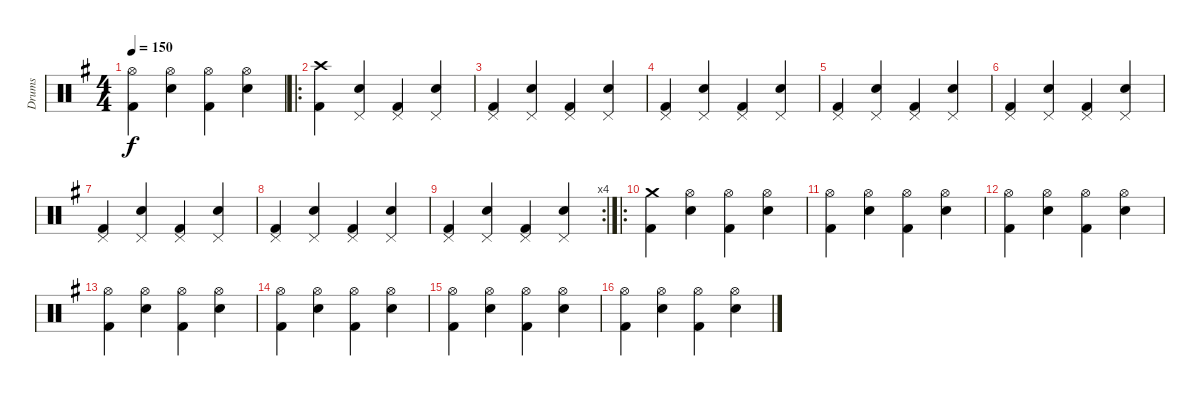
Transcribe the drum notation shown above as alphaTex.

\track ("Drums" "Drums") {instrument percussion}
\staff {score}
\articulation defaults
\ts (4 4)
\tempo 150
\clef neutral
\ks g
("Hi-Hat (open)" "Kick (hit) 2").4{dy f} ("Hi-Hat (open)" "Electric Snare (hit)").4 ("Hi-Hat (open)" "Kick (hit) 2").4 ("Hi-Hat (open)" "Electric Snare (hit)").4 |
\ro
("Crash high (hit)" "Kick (hit) 2").4 ("Pedal Hi-Hat (hit)" "Electric Snare (hit)").4 ("Pedal Hi-Hat (hit)" "Kick (hit) 2").4 ("Pedal Hi-Hat (hit)" "Electric Snare (hit)").4 |
("Pedal Hi-Hat (hit)" "Kick (hit) 2").4 ("Pedal Hi-Hat (hit)" "Electric Snare (hit)").4 ("Pedal Hi-Hat (hit)" "Kick (hit) 2").4 ("Pedal Hi-Hat (hit)" "Electric Snare (hit)").4 |
("Pedal Hi-Hat (hit)" "Kick (hit) 2").4 ("Pedal Hi-Hat (hit)" "Electric Snare (hit)").4 ("Pedal Hi-Hat (hit)" "Kick (hit) 2").4 ("Pedal Hi-Hat (hit)" "Electric Snare (hit)").4 |
("Pedal Hi-Hat (hit)" "Kick (hit) 2").4 ("Pedal Hi-Hat (hit)" "Electric Snare (hit)").4 ("Pedal Hi-Hat (hit)" "Kick (hit) 2").4 ("Pedal Hi-Hat (hit)" "Electric Snare (hit)").4 |
("Pedal Hi-Hat (hit)" "Kick (hit) 2").4 ("Pedal Hi-Hat (hit)" "Electric Snare (hit)").4 ("Pedal Hi-Hat (hit)" "Kick (hit) 2").4 ("Pedal Hi-Hat (hit)" "Electric Snare (hit)").4 |
("Pedal Hi-Hat (hit)" "Kick (hit) 2").4 ("Pedal Hi-Hat (hit)" "Electric Snare (hit)").4 ("Pedal Hi-Hat (hit)" "Kick (hit) 2").4 ("Pedal Hi-Hat (hit)" "Electric Snare (hit)").4 |
("Pedal Hi-Hat (hit)" "Kick (hit) 2").4 ("Pedal Hi-Hat (hit)" "Electric Snare (hit)").4 ("Pedal Hi-Hat (hit)" "Kick (hit) 2").4 ("Pedal Hi-Hat (hit)" "Electric Snare (hit)").4 |
\rc 4
("Pedal Hi-Hat (hit)" "Kick (hit) 2").4 ("Pedal Hi-Hat (hit)" "Electric Snare (hit)").4 ("Pedal Hi-Hat (hit)" "Kick (hit) 2").4 ("Pedal Hi-Hat (hit)" "Electric Snare (hit)").4 |
\ro
("Crash medium (hit)" "Kick (hit) 2").4 ("Hi-Hat (open)" "Electric Snare (hit)").4 ("Hi-Hat (open)" "Kick (hit) 2").4 ("Hi-Hat (open)" "Electric Snare (hit)").4 |
("Hi-Hat (open)" "Kick (hit) 2").4 ("Hi-Hat (open)" "Electric Snare (hit)").4 ("Hi-Hat (open)" "Kick (hit) 2").4 ("Hi-Hat (open)" "Electric Snare (hit)").4 |
("Hi-Hat (open)" "Kick (hit) 2").4 ("Hi-Hat (open)" "Electric Snare (hit)").4 ("Hi-Hat (open)" "Kick (hit) 2").4 ("Hi-Hat (open)" "Electric Snare (hit)").4 |
("Hi-Hat (open)" "Kick (hit) 2").4 ("Hi-Hat (open)" "Electric Snare (hit)").4 ("Hi-Hat (open)" "Kick (hit) 2").4 ("Hi-Hat (open)" "Electric Snare (hit)").4 |
("Hi-Hat (open)" "Kick (hit) 2").4 ("Hi-Hat (open)" "Electric Snare (hit)").4 ("Hi-Hat (open)" "Kick (hit) 2").4 ("Hi-Hat (open)" "Electric Snare (hit)").4 |
("Hi-Hat (open)" "Kick (hit) 2").4 ("Hi-Hat (open)" "Electric Snare (hit)").4 ("Hi-Hat (open)" "Kick (hit) 2").4 ("Hi-Hat (open)" "Electric Snare (hit)").4 |
("Hi-Hat (open)" "Kick (hit) 2").4 ("Hi-Hat (open)" "Electric Snare (hit)").4 ("Hi-Hat (open)" "Kick (hit) 2").4 ("Hi-Hat (open)" "Electric Snare (hit)").4
